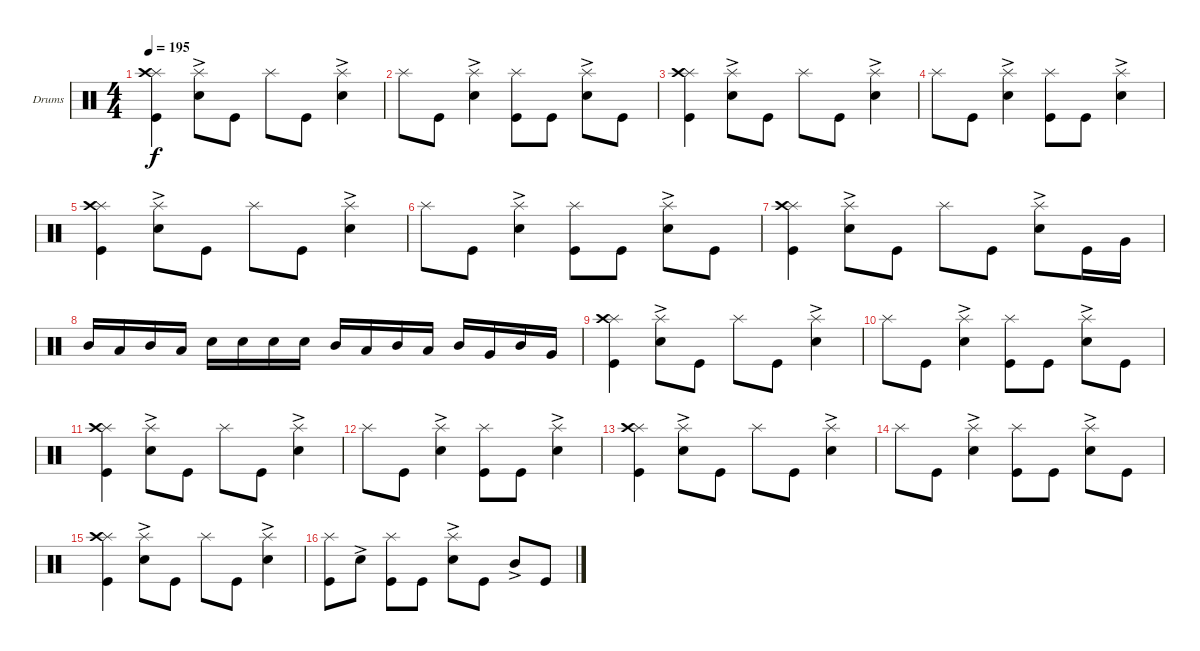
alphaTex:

\defaultSystemsLayout 4
\bracketExtendMode groupsimilarinstruments
\firstSystemTrackNameOrientation horizontal
\otherSystemsTrackNameOrientation horizontal
\track ("Drumkit" "Drums") {instrument percussion}
\staff {score}
\articulation defaults
\ts (4 4)
\tempo 195
\clef neutral
\ks c
("Kick (hit)" "Splash (hit)" "Crash high (hit)").4{dy f} ("Snare (hit) 2"{ac} "Splash (hit)").8 "Kick (hit)".8 "Splash (hit)".8 "Kick (hit)".8 ("Snare (hit) 2"{ac} "Splash (hit)").4 |
"Splash (hit)".8 "Kick (hit)".8 ("Snare (hit) 2"{ac} "Splash (hit)").4 ("Kick (hit)" "Splash (hit)").8 "Kick (hit)".8 ("Snare (hit) 2"{ac} "Splash (hit)").8 "Kick (hit)".8 |
("Kick (hit)" "Splash (hit)" "Crash high (hit)").4 ("Snare (hit) 2"{ac} "Splash (hit)").8 "Kick (hit)".8 "Splash (hit)".8 "Kick (hit)".8 ("Snare (hit) 2"{ac} "Splash (hit)").4 |
"Splash (hit)".8 "Kick (hit)".8 ("Snare (hit) 2"{ac} "Splash (hit)").4 ("Kick (hit)" "Splash (hit)").8 "Kick (hit)".8 ("Snare (hit) 2"{ac} "Splash (hit)").4 |
("Kick (hit)" "Splash (hit)" "Crash high (hit)").4 ("Snare (hit) 2"{ac} "Splash (hit)").8 "Kick (hit)".8 "Splash (hit)".8 "Kick (hit)".8 ("Snare (hit) 2"{ac} "Splash (hit)").4 |
"Splash (hit)".8 "Kick (hit)".8 ("Snare (hit) 2"{ac} "Splash (hit)").4 ("Kick (hit)" "Splash (hit)").8 "Kick (hit)".8 ("Snare (hit) 2"{ac} "Splash (hit)").8 "Kick (hit)".8 |
("Kick (hit)" "Splash (hit)" "Crash high (hit)").4 ("Snare (hit) 2"{ac} "Splash (hit)").8 "Kick (hit)".8 "Splash (hit)".8 "Kick (hit)".8 ("Snare (hit) 2"{ac} "Splash (hit)").8 "Kick (hit)".16 "Very Low Tom (hit)".16 |
"Mid Tom (hit)".16 "Low Tom (hit)".16 "Mid Tom (hit)".16 "Low Tom (hit)".16 "Snare (hit) 2".16 "Snare (hit) 2".16 "Snare (hit) 2".16 "Snare (hit) 2".16 "Mid Tom (hit)".16 "Low Tom (hit)".16 "Mid Tom (hit)".16 "Low Tom (hit)".16 "Mid Tom (hit)".16 "Very Low Tom (hit)".16 "Mid Tom (hit)".16 "Very Low Tom (hit)".16 |
("Kick (hit)" "Splash (hit)" "Crash high (hit)").4 ("Snare (hit) 2"{ac} "Splash (hit)").8 "Kick (hit)".8 "Splash (hit)".8 "Kick (hit)".8 ("Snare (hit) 2"{ac} "Splash (hit)").4 |
"Splash (hit)".8 "Kick (hit)".8 ("Snare (hit) 2"{ac} "Splash (hit)").4 ("Kick (hit)" "Splash (hit)").8 "Kick (hit)".8 ("Snare (hit) 2"{ac} "Splash (hit)").8 "Kick (hit)".8 |
("Kick (hit)" "Splash (hit)" "Crash high (hit)").4 ("Snare (hit) 2"{ac} "Splash (hit)").8 "Kick (hit)".8 "Splash (hit)".8 "Kick (hit)".8 ("Snare (hit) 2"{ac} "Splash (hit)").4 |
"Splash (hit)".8 "Kick (hit)".8 ("Snare (hit) 2"{ac} "Splash (hit)").4 ("Kick (hit)" "Splash (hit)").8 "Kick (hit)".8 ("Snare (hit) 2"{ac} "Splash (hit)").4 |
("Kick (hit)" "Splash (hit)" "Crash high (hit)").4 ("Snare (hit) 2"{ac} "Splash (hit)").8 "Kick (hit)".8 "Splash (hit)".8 "Kick (hit)".8 ("Snare (hit) 2"{ac} "Splash (hit)").4 |
"Splash (hit)".8 "Kick (hit)".8 ("Snare (hit) 2"{ac} "Splash (hit)").4 ("Kick (hit)" "Splash (hit)").8 "Kick (hit)".8 ("Snare (hit) 2"{ac} "Splash (hit)").8 "Kick (hit)".8 |
("Kick (hit)" "Splash (hit)" "Crash high (hit)").4 ("Snare (hit) 2"{ac} "Splash (hit)").8 "Kick (hit)".8 "Splash (hit)".8 "Kick (hit)".8 ("Snare (hit) 2"{ac} "Splash (hit)").4 |
("Kick (hit)" "Splash (hit)").8 "Snare (hit) 2"{ac}.8 ("Splash (hit)" "Kick (hit)").8 "Kick (hit)".8 ("Snare (hit) 2"{ac} "Splash (hit)").8 "Kick (hit)".8 "Mid Tom (hit)"{ac}.8 "Kick (hit)".8
